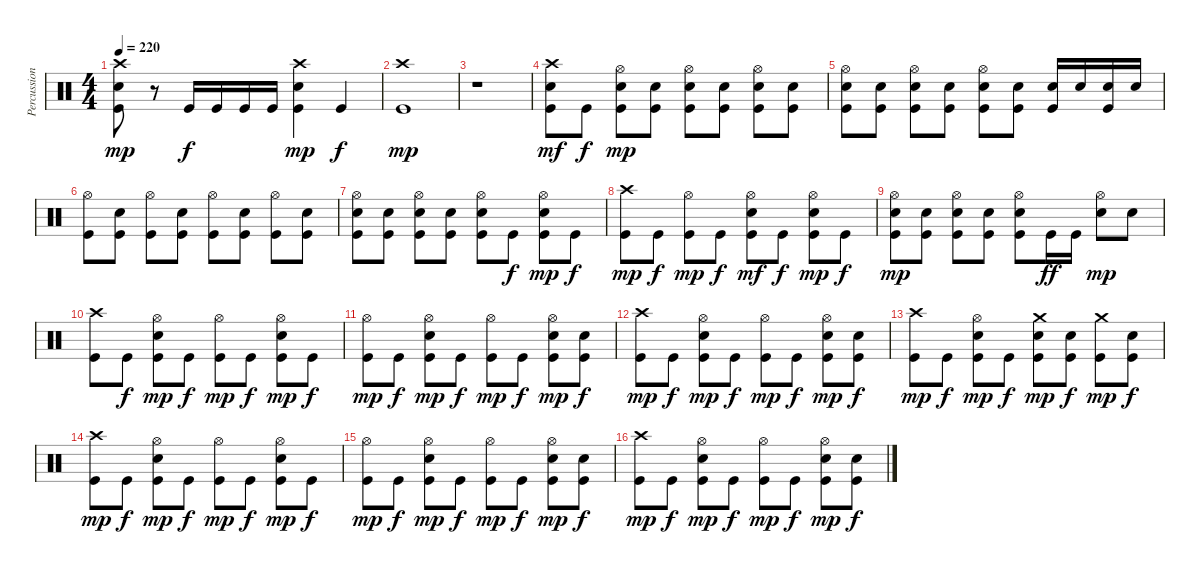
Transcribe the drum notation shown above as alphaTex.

\track ("Percussion" "Percussion") {instrument percussion}
\staff {score}
\articulation defaults
\ts (4 4)
\tempo 220
\clef neutral
\ks c
("Crash high (hit)" "Electric Snare (hit)" "Kick (hit)").8{dy mp} r.8 "Kick (hit)".16{dy f} "Kick (hit)".16 "Kick (hit)".16 "Kick (hit)".16 ("Crash high (hit)" "Electric Snare (hit)" "Kick (hit)").4{dy mp} "Kick (hit)".4{dy f} |
("Crash high (hit)" "Kick (hit)").1{dy mp} |
r.1 |
("Crash high (hit)" "Electric Snare (hit)" "Kick (hit)").8{dy mf} "Kick (hit)".8{dy f} ("Hi-Hat (open)" "Electric Snare (hit)" "Kick (hit)").8{dy mp} ("Electric Snare (hit)" "Kick (hit)").8 ("Hi-Hat (open)" "Electric Snare (hit)" "Kick (hit)").8 ("Electric Snare (hit)" "Kick (hit)").8 ("Hi-Hat (open)" "Electric Snare (hit)" "Kick (hit)").8 ("Electric Snare (hit)" "Kick (hit)").8 |
("Hi-Hat (open)" "Electric Snare (hit)" "Kick (hit)").8 ("Electric Snare (hit)" "Kick (hit)").8 ("Hi-Hat (open)" "Electric Snare (hit)" "Kick (hit)").8 ("Electric Snare (hit)" "Kick (hit)").8 ("Hi-Hat (open)" "Electric Snare (hit)" "Kick (hit)").8 ("Electric Snare (hit)" "Kick (hit)").8 ("Electric Snare (hit)" "Kick (hit)").16 "Electric Snare (hit)".16 ("Electric Snare (hit)" "Kick (hit)").16 "Electric Snare (hit)".16 |
("Hi-Hat (open)" "Kick (hit)").8 ("Electric Snare (hit)" "Kick (hit)").8 ("Hi-Hat (open)" "Kick (hit)").8 ("Electric Snare (hit)" "Kick (hit)").8 ("Hi-Hat (open)" "Kick (hit)").8 ("Electric Snare (hit)" "Kick (hit)").8 ("Hi-Hat (open)" "Kick (hit)").8 ("Electric Snare (hit)" "Kick (hit)").8 |
("Hi-Hat (open)" "Electric Snare (hit)" "Kick (hit)").8 ("Electric Snare (hit)" "Kick (hit)").8 ("Hi-Hat (open)" "Electric Snare (hit)" "Kick (hit)").8 ("Electric Snare (hit)" "Kick (hit)").8 ("Hi-Hat (open)" "Electric Snare (hit)" "Kick (hit)").8 "Kick (hit)".8{dy f} ("Hi-Hat (open)" "Electric Snare (hit)" "Kick (hit)").8{dy mp} "Kick (hit)".8{dy f} |
("Crash high (hit)" "Kick (hit)").8{dy mp} "Kick (hit)".8{dy f} ("Hi-Hat (open)" "Kick (hit)").8{dy mp} "Kick (hit)".8{dy f} ("Hi-Hat (open)" "Electric Snare (hit)" "Kick (hit)").8{dy mf} "Kick (hit)".8{dy f} ("Hi-Hat (open)" "Electric Snare (hit)" "Kick (hit)").8{dy mp} "Kick (hit)".8{dy f} |
("Hi-Hat (open)" "Electric Snare (hit)" "Kick (hit)").8{dy mp} ("Electric Snare (hit)" "Kick (hit)").8 ("Hi-Hat (open)" "Electric Snare (hit)" "Kick (hit)").8 ("Electric Snare (hit)" "Kick (hit)").8 ("Hi-Hat (open)" "Electric Snare (hit)" "Kick (hit)").8 "Kick (hit)".16{dy ff} "Kick (hit)".16 ("Hi-Hat (open)" "Electric Snare (hit)").8{dy mp} "Electric Snare (hit)".8 |
("Crash high (hit)" "Kick (hit)").8 "Kick (hit)".8{dy f} ("Hi-Hat (open)" "Electric Snare (hit)" "Kick (hit)").8{dy mp} "Kick (hit)".8{dy f} ("Hi-Hat (open)" "Kick (hit)").8{dy mp} "Kick (hit)".8{dy f} ("Hi-Hat (open)" "Electric Snare (hit)" "Kick (hit)").8{dy mp} "Kick (hit)".8{dy f} |
("Hi-Hat (open)" "Kick (hit)").8{dy mp} "Kick (hit)".8{dy f} ("Hi-Hat (open)" "Electric Snare (hit)" "Kick (hit)").8{dy mp} "Kick (hit)".8{dy f} ("Hi-Hat (open)" "Kick (hit)").8{dy mp} "Kick (hit)".8{dy f} ("Hi-Hat (open)" "Electric Snare (hit)" "Kick (hit)").8{dy mp} ("Electric Snare (hit)" "Kick (hit)").8{dy f} |
("Crash high (hit)" "Kick (hit)").8{dy mp} "Kick (hit)".8{dy f} ("Hi-Hat (open)" "Electric Snare (hit)" "Kick (hit)").8{dy mp} "Kick (hit)".8{dy f} ("Hi-Hat (open)" "Kick (hit)").8{dy mp} "Kick (hit)".8{dy f} ("Hi-Hat (open)" "Electric Snare (hit)" "Kick (hit)").8{dy mp} ("Electric Snare (hit)" "Kick (hit)").8{dy f} |
("Crash high (hit)" "Kick (hit)").8{dy mp} "Kick (hit)".8{dy f} ("Hi-Hat (open)" "Electric Snare (hit)" "Kick (hit)").8{dy mp} "Kick (hit)".8{dy f} ("Crash medium (hit)" "Electric Snare (hit)" "Kick (hit)").8{dy mp} ("Electric Snare (hit)" "Kick (hit)").8{dy f} ("Crash medium (hit)" "Kick (hit)").8{dy mp} ("Electric Snare (hit)" "Kick (hit)").8{dy f} |
("Crash high (hit)" "Kick (hit)").8{dy mp} "Kick (hit)".8{dy f} ("Hi-Hat (open)" "Electric Snare (hit)" "Kick (hit)").8{dy mp} "Kick (hit)".8{dy f} ("Hi-Hat (open)" "Kick (hit)").8{dy mp} "Kick (hit)".8{dy f} ("Hi-Hat (open)" "Electric Snare (hit)" "Kick (hit)").8{dy mp} "Kick (hit)".8{dy f} |
("Hi-Hat (open)" "Kick (hit)").8{dy mp} "Kick (hit)".8{dy f} ("Hi-Hat (open)" "Electric Snare (hit)" "Kick (hit)").8{dy mp} "Kick (hit)".8{dy f} ("Hi-Hat (open)" "Kick (hit)").8{dy mp} "Kick (hit)".8{dy f} ("Hi-Hat (open)" "Electric Snare (hit)" "Kick (hit)").8{dy mp} ("Electric Snare (hit)" "Kick (hit)").8{dy f} |
("Crash high (hit)" "Kick (hit)").8{dy mp} "Kick (hit)".8{dy f} ("Hi-Hat (open)" "Electric Snare (hit)" "Kick (hit)").8{dy mp} "Kick (hit)".8{dy f} ("Hi-Hat (open)" "Kick (hit)").8{dy mp} "Kick (hit)".8{dy f} ("Hi-Hat (open)" "Electric Snare (hit)" "Kick (hit)").8{dy mp} ("Electric Snare (hit)" "Kick (hit)").8{dy f}
